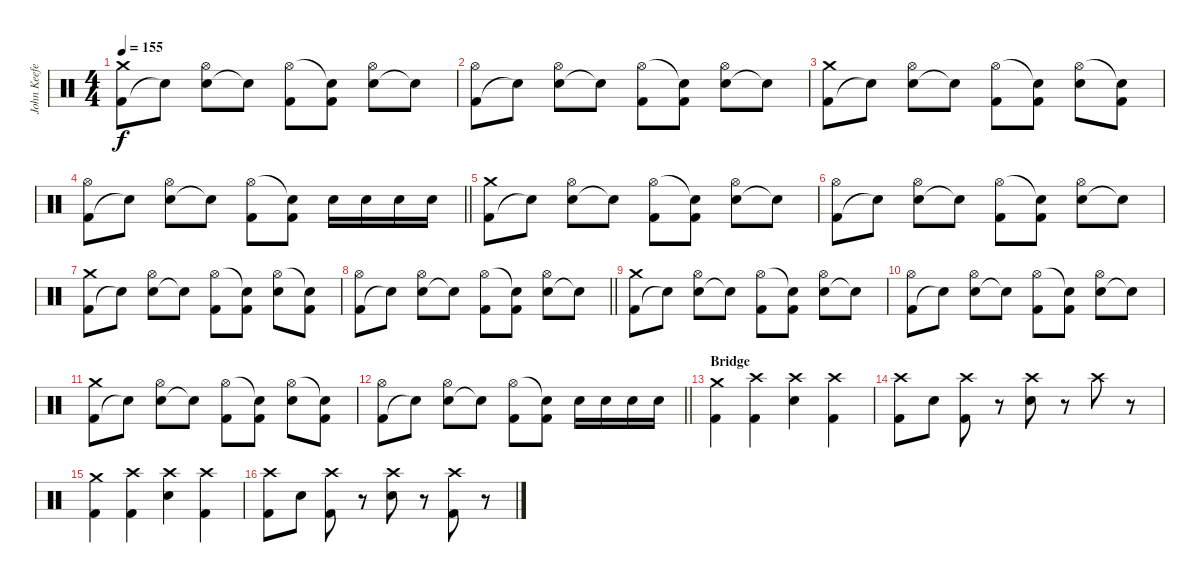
\track ("John Keefe (Percussion)" "John Keefe") {instrument percussion}
\staff {score}
\articulation defaults
\ts (4 4)
\tempo 155
\clef neutral
\ks c
("Kick (hit) 2" "Crash medium (hit)").8{dy f} "Snare (hit)"{t}.8 ("Electric Snare (hit)" "Hi-Hat (open)").8 "Snare (hit)"{t}.8 ("Kick (hit) 2" "Hi-Hat (open)").8 ("Kick (hit) 2" "Snare (hit)"{t}).8 ("Electric Snare (hit)" "Hi-Hat (open)").8 "Snare (hit)"{t}.8 |
("Kick (hit) 2" "Hi-Hat (open)").8 "Snare (hit)"{t}.8 ("Electric Snare (hit)" "Hi-Hat (open)").8 "Snare (hit)"{t}.8 ("Kick (hit) 2" "Hi-Hat (open)").8 ("Kick (hit) 2" "Snare (hit)"{t}).8 ("Electric Snare (hit)" "Hi-Hat (open)").8 "Snare (hit)"{t}.8 |
("Kick (hit) 2" "Crash medium (hit)").8 "Snare (hit)"{t}.8 ("Electric Snare (hit)" "Hi-Hat (open)").8 "Snare (hit)"{t}.8 ("Kick (hit) 2" "Hi-Hat (open)").8 ("Kick (hit) 2" "Snare (hit)"{t}).8 ("Electric Snare (hit)" "Hi-Hat (open)").8 ("Kick (hit) 2" "Snare (hit)"{t}).8 |
\barLineRight lightlight
("Kick (hit) 2" "Hi-Hat (open)").8 "Snare (hit)"{t}.8 ("Electric Snare (hit)" "Hi-Hat (open)").8 "Snare (hit)"{t}.8 ("Kick (hit) 2" "Hi-Hat (open)").8 ("Kick (hit) 2" "Snare (hit)"{t}).8 "Electric Snare (hit)".16 "Electric Snare (hit)".16 "Electric Snare (hit)".16 "Electric Snare (hit)".16 |
("Kick (hit) 2" "Crash medium (hit)").8 "Snare (hit)"{t}.8 ("Electric Snare (hit)" "Hi-Hat (open)").8 "Snare (hit)"{t}.8 ("Kick (hit) 2" "Hi-Hat (open)").8 ("Kick (hit) 2" "Snare (hit)"{t}).8 ("Electric Snare (hit)" "Hi-Hat (open)").8 "Snare (hit)"{t}.8 |
("Kick (hit) 2" "Hi-Hat (open)").8 "Snare (hit)"{t}.8 ("Electric Snare (hit)" "Hi-Hat (open)").8 "Snare (hit)"{t}.8 ("Kick (hit) 2" "Hi-Hat (open)").8 ("Kick (hit) 2" "Snare (hit)"{t}).8 ("Electric Snare (hit)" "Hi-Hat (open)").8 "Snare (hit)"{t}.8 |
("Kick (hit) 2" "Crash medium (hit)").8 "Snare (hit)"{t}.8 ("Electric Snare (hit)" "Hi-Hat (open)").8 "Snare (hit)"{t}.8 ("Kick (hit) 2" "Hi-Hat (open)").8 ("Kick (hit) 2" "Snare (hit)"{t}).8 ("Electric Snare (hit)" "Hi-Hat (open)").8 ("Kick (hit) 2" "Snare (hit)"{t}).8 |
\barLineRight lightlight
("Kick (hit) 2" "Hi-Hat (open)").8 "Snare (hit)"{t}.8 ("Electric Snare (hit)" "Hi-Hat (open)").8 "Snare (hit)"{t}.8 ("Kick (hit) 2" "Hi-Hat (open)").8 ("Kick (hit) 2" "Snare (hit)"{t}).8 ("Electric Snare (hit)" "Hi-Hat (open)").8 "Snare (hit)"{t}.8 |
("Kick (hit) 2" "Crash medium (hit)").8 "Snare (hit)"{t}.8 ("Electric Snare (hit)" "Hi-Hat (open)").8 "Snare (hit)"{t}.8 ("Kick (hit) 2" "Hi-Hat (open)").8 ("Kick (hit) 2" "Snare (hit)"{t}).8 ("Electric Snare (hit)" "Hi-Hat (open)").8 "Snare (hit)"{t}.8 |
("Kick (hit) 2" "Hi-Hat (open)").8 "Snare (hit)"{t}.8 ("Electric Snare (hit)" "Hi-Hat (open)").8 "Snare (hit)"{t}.8 ("Kick (hit) 2" "Hi-Hat (open)").8 ("Kick (hit) 2" "Snare (hit)"{t}).8 ("Electric Snare (hit)" "Hi-Hat (open)").8 "Snare (hit)"{t}.8 |
("Kick (hit) 2" "Crash medium (hit)").8 "Snare (hit)"{t}.8 ("Electric Snare (hit)" "Hi-Hat (open)").8 "Snare (hit)"{t}.8 ("Kick (hit) 2" "Hi-Hat (open)").8 ("Kick (hit) 2" "Snare (hit)"{t}).8 ("Electric Snare (hit)" "Hi-Hat (open)").8 ("Kick (hit) 2" "Snare (hit)"{t}).8 |
\barLineRight lightlight
("Kick (hit) 2" "Hi-Hat (open)").8 "Snare (hit)"{t}.8 ("Electric Snare (hit)" "Hi-Hat (open)").8 "Snare (hit)"{t}.8 ("Kick (hit) 2" "Hi-Hat (open)").8 ("Kick (hit) 2" "Snare (hit)"{t}).8 "Electric Snare (hit)".16 "Electric Snare (hit)".16 "Electric Snare (hit)".16 "Electric Snare (hit)".16 |
\section ("" "Bridge")
("Kick (hit) 2" "Crash medium (hit)").4 ("Kick (hit) 2" "Crash high (hit)").4 ("Electric Snare (hit)" "Crash high (hit)").4 ("Kick (hit) 2" "Crash high (hit)").4 |
("Kick (hit) 2" "Crash high (hit)").8 "Electric Snare (hit)".8 ("Kick (hit) 2" "Crash high (hit)").8 r.8 ("Electric Snare (hit)" "Crash high (hit)").8 r.8 "Crash high (hit)".8 r.8 |
("Kick (hit) 2" "Crash medium (hit)").4 ("Kick (hit) 2" "Crash high (hit)").4 ("Electric Snare (hit)" "Crash high (hit)").4 ("Kick (hit) 2" "Crash high (hit)").4 |
("Kick (hit) 2" "Crash high (hit)").8 "Electric Snare (hit)".8 ("Kick (hit) 2" "Crash high (hit)").8 r.8 ("Electric Snare (hit)" "Crash high (hit)").8 r.8 ("Kick (hit) 2" "Crash high (hit)").8 r.8
